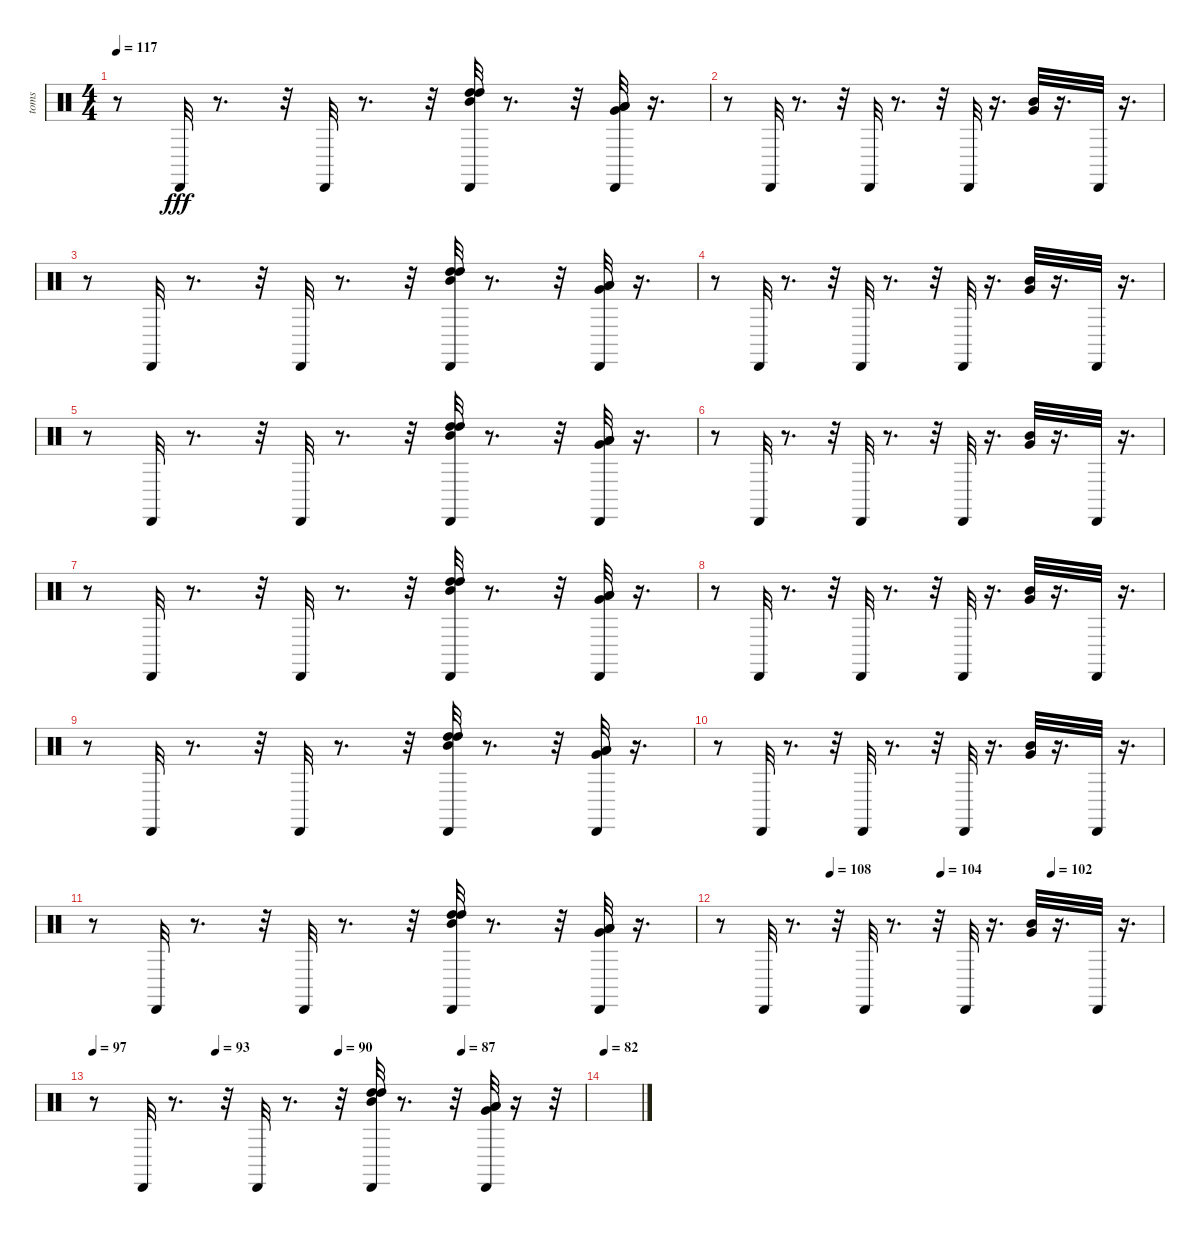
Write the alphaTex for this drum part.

\track ("toms" "toms") {instrument percussion}
\staff {score}
\articulation defaults
\ts (4 4)
\tempo 117
\clef neutral
\ks c
r.8{dy fff} "Cabasa (hit)".32 r.8{d} r.32 "Cabasa (hit)".32 r.8{d} r.32 ("High Tom (hit)" "High Tom (hit)" "Mid Tom (hit)" "Cabasa (hit)").32 r.8{d} r.32 ("Low Tom (hit)" "Low Tom (hit)" "Very Low Tom (hit)" "Cabasa (hit)").32 r.16{d} |
r.8 "Cabasa (hit)".32 r.8{d} r.32 "Cabasa (hit)".32 r.8{d} r.32 "Cabasa (hit)".32 r.16{d} ("Very Low Tom (hit)" "Mid Tom (hit)").32 r.16{d} "Cabasa (hit)".32 r.16{d} |
r.8 "Cabasa (hit)".32 r.8{d} r.32 "Cabasa (hit)".32 r.8{d} r.32 ("High Tom (hit)" "High Tom (hit)" "Mid Tom (hit)" "Cabasa (hit)").32 r.8{d} r.32 ("Low Tom (hit)" "Low Tom (hit)" "Very Low Tom (hit)" "Cabasa (hit)").32 r.16{d} |
r.8 "Cabasa (hit)".32 r.8{d} r.32 "Cabasa (hit)".32 r.8{d} r.32 "Cabasa (hit)".32 r.16{d} ("Very Low Tom (hit)" "Mid Tom (hit)").32 r.16{d} "Cabasa (hit)".32 r.16{d} |
r.8 "Cabasa (hit)".32 r.8{d} r.32 "Cabasa (hit)".32 r.8{d} r.32 ("High Tom (hit)" "High Tom (hit)" "Mid Tom (hit)" "Cabasa (hit)").32 r.8{d} r.32 ("Low Tom (hit)" "Low Tom (hit)" "Very Low Tom (hit)" "Cabasa (hit)").32 r.16{d} |
r.8 "Cabasa (hit)".32 r.8{d} r.32 "Cabasa (hit)".32 r.8{d} r.32 "Cabasa (hit)".32 r.16{d} ("Very Low Tom (hit)" "Mid Tom (hit)").32 r.16{d} "Cabasa (hit)".32 r.16{d} |
r.8 "Cabasa (hit)".32 r.8{d} r.32 "Cabasa (hit)".32 r.8{d} r.32 ("High Tom (hit)" "High Tom (hit)" "Mid Tom (hit)" "Cabasa (hit)").32 r.8{d} r.32 ("Low Tom (hit)" "Low Tom (hit)" "Very Low Tom (hit)" "Cabasa (hit)").32 r.16{d} |
r.8 "Cabasa (hit)".32 r.8{d} r.32 "Cabasa (hit)".32 r.8{d} r.32 "Cabasa (hit)".32 r.16{d} ("Very Low Tom (hit)" "Mid Tom (hit)").32 r.16{d} "Cabasa (hit)".32 r.16{d} |
r.8 "Cabasa (hit)".32 r.8{d} r.32 "Cabasa (hit)".32 r.8{d} r.32 ("High Tom (hit)" "High Tom (hit)" "Mid Tom (hit)" "Cabasa (hit)").32 r.8{d} r.32 ("Low Tom (hit)" "Low Tom (hit)" "Very Low Tom (hit)" "Cabasa (hit)").32 r.16{d} |
r.8 "Cabasa (hit)".32 r.8{d} r.32 "Cabasa (hit)".32 r.8{d} r.32 "Cabasa (hit)".32 r.16{d} ("Very Low Tom (hit)" "Mid Tom (hit)").32 r.16{d} "Cabasa (hit)".32 r.16{d} |
r.8 "Cabasa (hit)".32 r.8{d} r.32 "Cabasa (hit)".32 r.8{d} r.32 ("High Tom (hit)" "High Tom (hit)" "Mid Tom (hit)" "Cabasa (hit)").32 r.8{d} r.32 ("Low Tom (hit)" "Low Tom (hit)" "Very Low Tom (hit)" "Cabasa (hit)").32 r.16{d} |
\tempo (108 0.25)
\tempo (104 0.5)
\tempo (102 0.75)
r.8 "Cabasa (hit)".32 r.8{d} r.32 "Cabasa (hit)".32 r.8{d} r.32 "Cabasa (hit)".32 r.16{d} ("Very Low Tom (hit)" "Mid Tom (hit)").32 r.16{d} "Cabasa (hit)".32 r.16{d} |
\tempo 97
\tempo (93 0.25)
\tempo (90 0.5)
\tempo (87 0.75)
r.8 "Cabasa (hit)".32 r.8{d} r.32 "Cabasa (hit)".32 r.8{d} r.32 ("High Tom (hit)" "High Tom (hit)" "Mid Tom (hit)" "Cabasa (hit)").32 r.8{d} r.32 ("Low Tom (hit)" "Low Tom (hit)" "Very Low Tom (hit)" "Cabasa (hit)").32 r.16 r.32 |
\tempo 82
